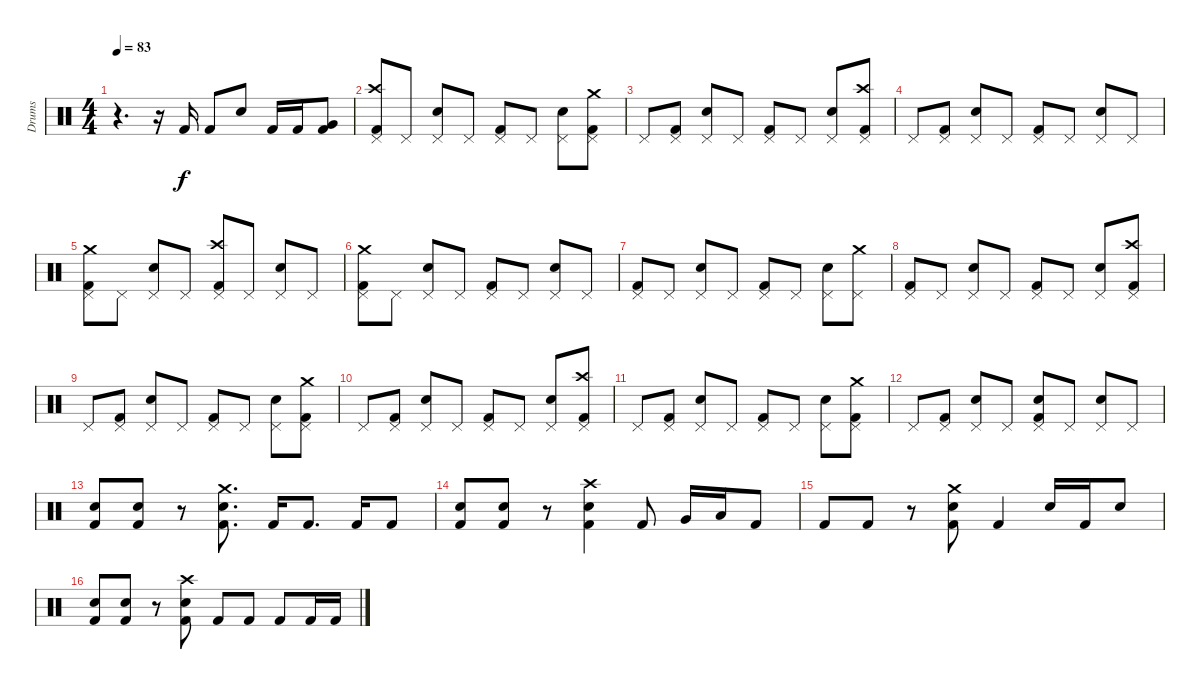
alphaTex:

\track ("Drums" "Drums") {instrument percussion}
\staff {score}
\articulation defaults
\ts (4 4)
\tempo 83
\clef neutral
\ks c
r.4{d dy f} r.16 "Kick (hit) 2".16 "Kick (hit) 2".8 "Snare (hit) 2".8 "Kick (hit) 2".16 "Kick (hit) 2".16 ("Very Low Tom (hit)" "Kick (hit) 2").8 |
("Crash high (hit)" "Pedal Hi-Hat (hit)" "Kick (hit) 2").8 "Pedal Hi-Hat (hit)".8 ("Pedal Hi-Hat (hit)" "Snare (hit) 2").8 "Pedal Hi-Hat (hit)".8 ("Pedal Hi-Hat (hit)" "Kick (hit) 2").8 "Pedal Hi-Hat (hit)".8 ("Pedal Hi-Hat (hit)" "Snare (hit) 2").8 ("Crash medium (hit)" "Pedal Hi-Hat (hit)" "Kick (hit) 2").8 |
"Pedal Hi-Hat (hit)".8 ("Pedal Hi-Hat (hit)" "Kick (hit) 2").8 ("Pedal Hi-Hat (hit)" "Snare (hit) 2").8 "Pedal Hi-Hat (hit)".8 ("Pedal Hi-Hat (hit)" "Kick (hit) 2").8 "Pedal Hi-Hat (hit)".8 ("Pedal Hi-Hat (hit)" "Snare (hit) 2").8 ("Crash high (hit)" "Pedal Hi-Hat (hit)" "Kick (hit) 2").8 |
"Pedal Hi-Hat (hit)".8 ("Pedal Hi-Hat (hit)" "Kick (hit) 2").8 ("Pedal Hi-Hat (hit)" "Snare (hit) 2").8 "Pedal Hi-Hat (hit)".8 ("Pedal Hi-Hat (hit)" "Kick (hit) 2").8 "Pedal Hi-Hat (hit)".8 ("Pedal Hi-Hat (hit)" "Snare (hit) 2").8 "Pedal Hi-Hat (hit)".8 |
("Pedal Hi-Hat (hit)" "Kick (hit) 2" "Crash medium (hit)").8 "Pedal Hi-Hat (hit)".8 ("Pedal Hi-Hat (hit)" "Snare (hit) 2").8 "Pedal Hi-Hat (hit)".8 ("Pedal Hi-Hat (hit)" "Kick (hit) 2" "Crash high (hit)").8 "Pedal Hi-Hat (hit)".8 ("Pedal Hi-Hat (hit)" "Snare (hit) 2").8 "Pedal Hi-Hat (hit)".8 |
("Pedal Hi-Hat (hit)" "Crash medium (hit)" "Kick (hit) 2").8 "Pedal Hi-Hat (hit)".8 ("Pedal Hi-Hat (hit)" "Snare (hit) 2").8 "Pedal Hi-Hat (hit)".8 ("Pedal Hi-Hat (hit)" "Kick (hit) 2").8 "Pedal Hi-Hat (hit)".8 ("Pedal Hi-Hat (hit)" "Snare (hit) 2").8 "Pedal Hi-Hat (hit)".8 |
("Pedal Hi-Hat (hit)" "Kick (hit) 2").8 "Pedal Hi-Hat (hit)".8 ("Pedal Hi-Hat (hit)" "Snare (hit) 2").8 "Pedal Hi-Hat (hit)".8 ("Pedal Hi-Hat (hit)" "Kick (hit) 2").8 "Pedal Hi-Hat (hit)".8 ("Pedal Hi-Hat (hit)" "Snare (hit) 2").8 ("Pedal Hi-Hat (hit)" "Crash medium (hit)").8 |
("Pedal Hi-Hat (hit)" "Kick (hit) 2").8 "Pedal Hi-Hat (hit)".8 ("Pedal Hi-Hat (hit)" "Snare (hit) 2").8 "Pedal Hi-Hat (hit)".8 ("Pedal Hi-Hat (hit)" "Kick (hit) 2").8 "Pedal Hi-Hat (hit)".8 ("Pedal Hi-Hat (hit)" "Snare (hit) 2").8 ("Crash high (hit)" "Pedal Hi-Hat (hit)" "Kick (hit) 2").8 |
"Pedal Hi-Hat (hit)".8 ("Kick (hit) 2" "Pedal Hi-Hat (hit)").8 ("Pedal Hi-Hat (hit)" "Snare (hit) 2").8 "Pedal Hi-Hat (hit)".8 ("Pedal Hi-Hat (hit)" "Kick (hit) 2").8 "Pedal Hi-Hat (hit)".8 ("Pedal Hi-Hat (hit)" "Snare (hit) 2").8 ("Pedal Hi-Hat (hit)" "Crash medium (hit)" "Kick (hit) 2").8 |
"Pedal Hi-Hat (hit)".8 ("Pedal Hi-Hat (hit)" "Kick (hit) 2").8 ("Pedal Hi-Hat (hit)" "Snare (hit) 2").8 "Pedal Hi-Hat (hit)".8 ("Pedal Hi-Hat (hit)" "Kick (hit) 2").8 "Pedal Hi-Hat (hit)".8 ("Pedal Hi-Hat (hit)" "Snare (hit) 2").8 ("Pedal Hi-Hat (hit)" "Crash high (hit)" "Kick (hit) 2").8 |
"Pedal Hi-Hat (hit)".8 ("Pedal Hi-Hat (hit)" "Kick (hit) 2").8 ("Pedal Hi-Hat (hit)" "Snare (hit) 2").8 "Pedal Hi-Hat (hit)".8 ("Pedal Hi-Hat (hit)" "Kick (hit) 2").8 "Pedal Hi-Hat (hit)".8 ("Pedal Hi-Hat (hit)" "Snare (hit) 2").8 ("Pedal Hi-Hat (hit)" "Crash medium (hit)" "Kick (hit) 2").8 |
"Pedal Hi-Hat (hit)".8 ("Pedal Hi-Hat (hit)" "Kick (hit) 2").8 ("Pedal Hi-Hat (hit)" "Snare (hit) 2").8 "Pedal Hi-Hat (hit)".8 ("Pedal Hi-Hat (hit)" "Kick (hit) 2" "Snare (hit) 2").8 "Pedal Hi-Hat (hit)".8 ("Pedal Hi-Hat (hit)" "Snare (hit) 2").8 "Pedal Hi-Hat (hit)".8 |
("Snare (hit) 2" "Kick (hit) 2").8 ("Snare (hit) 2" "Kick (hit) 2").8 r.8 ("Crash medium (hit)" "Snare (hit) 2" "Kick (hit) 2").8{d} "Kick (hit) 2".16 "Kick (hit) 2".8{d} "Kick (hit) 2".16 "Kick (hit) 2".8 |
("Kick (hit) 2" "Snare (hit) 2").8 ("Snare (hit) 2" "Kick (hit) 2").8 r.8 ("Kick (hit) 2" "Snare (hit) 2" "Crash high (hit)").4 "Kick (hit) 2".8 "Very Low Tom (hit)".16 "Low Floor Tom (hit)".16 "Kick (hit) 2".8 |
"Kick (hit) 2".8 "Kick (hit) 2".8 r.8 ("Crash medium (hit)" "Kick (hit) 2" "Snare (hit) 2").8 "Kick (hit) 2".4 "Snare (hit) 2".16 "Kick (hit) 2".16 "Snare (hit) 2".8 |
("Snare (hit) 2" "Kick (hit) 2").8 ("Snare (hit) 2" "Kick (hit) 2").8 r.8 ("Snare (hit) 2" "Crash high (hit)" "Kick (hit) 2").8 "Kick (hit) 2".8 "Kick (hit) 2".8 "Kick (hit) 2".8 "Kick (hit) 2".16 "Kick (hit) 2".16
